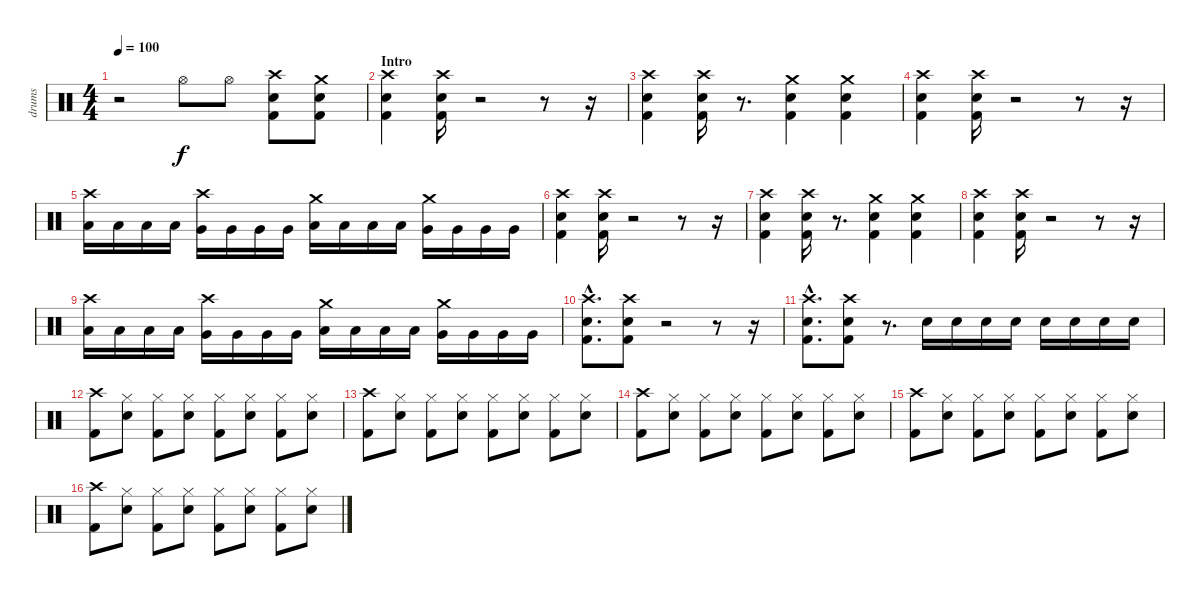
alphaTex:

\track ("drums" "drums") {instrument percussion}
\staff {score}
\articulation defaults
\ts (4 4)
\tempo 100
\clef neutral
\ks c
r.2{dy f} "Hi-Hat (open)".8 "Hi-Hat (open)".8 ("Crash high (hit)" "Snare (hit) 2" "Kick (hit) 2").8 ("Crash medium (hit)" "Snare (hit) 2" "Kick (hit) 2").8 |
\section ("" "Intro")
("Crash high (hit)" "Snare (hit) 2" "Kick (hit) 2").4 ("Crash high (hit)" "Snare (hit) 2" "Kick (hit) 2").16 r.2 r.8 r.16 |
("Crash high (hit)" "Snare (hit) 2" "Kick (hit) 2").4 ("Crash high (hit)" "Snare (hit) 2" "Kick (hit) 2").16 r.8{d} ("Crash medium (hit)" "Snare (hit) 2" "Kick (hit) 2").4 ("Crash medium (hit)" "Snare (hit) 2" "Kick (hit) 2").4 |
("Crash high (hit)" "Snare (hit) 2" "Kick (hit) 2").4 ("Crash high (hit)" "Snare (hit) 2" "Kick (hit) 2").16 r.2 r.8 r.16 |
("Crash high (hit)" "Low Tom (hit)").16 "Low Tom (hit)".16 "Low Tom (hit)".16 "Low Tom (hit)".16 ("Crash high (hit)" "Very Low Tom (hit)").16 "Very Low Tom (hit)".16 "Very Low Tom (hit)".16 "Very Low Tom (hit)".16 ("Crash medium (hit)" "Low Floor Tom (hit)").16 "Low Floor Tom (hit)".16 "Low Floor Tom (hit)".16 "Low Floor Tom (hit)".16 ("Crash medium (hit)" "Very Low Tom (hit)").16 "Very Low Tom (hit)".16 "Very Low Tom (hit)".16 "Very Low Tom (hit)".16 |
("Crash high (hit)" "Snare (hit) 2" "Kick (hit) 2").4 ("Crash high (hit)" "Snare (hit) 2" "Kick (hit) 2").16 r.2 r.8 r.16 |
("Crash high (hit)" "Snare (hit) 2" "Kick (hit) 2").4 ("Crash high (hit)" "Snare (hit) 2" "Kick (hit) 2").16 r.8{d} ("Crash medium (hit)" "Snare (hit) 2" "Kick (hit) 2").4 ("Crash medium (hit)" "Snare (hit) 2" "Kick (hit) 2").4 |
("Crash high (hit)" "Snare (hit) 2" "Kick (hit) 2").4 ("Crash high (hit)" "Snare (hit) 2" "Kick (hit) 2").16 r.2 r.8 r.16 |
("Crash high (hit)" "Low Tom (hit)").16 "Low Tom (hit)".16 "Low Tom (hit)".16 "Low Tom (hit)".16 ("Crash high (hit)" "Very Low Tom (hit)").16 "Very Low Tom (hit)".16 "Very Low Tom (hit)".16 "Very Low Tom (hit)".16 ("Crash medium (hit)" "Low Floor Tom (hit)").16 "Low Floor Tom (hit)".16 "Low Floor Tom (hit)".16 "Low Floor Tom (hit)".16 ("Crash medium (hit)" "Very Low Tom (hit)").16 "Very Low Tom (hit)".16 "Very Low Tom (hit)".16 "Very Low Tom (hit)".16 |
("Crash high (hit)"{hac} "Snare (hit) 2"{hac} "Kick (hit) 2"{hac}).8{d} ("Crash high (hit)" "Snare (hit) 2" "Kick (hit) 2").8 r.2 r.8 r.16 |
("Crash high (hit)"{hac} "Snare (hit) 2"{hac} "Kick (hit) 2"{hac}).8{d} ("Crash high (hit)" "Snare (hit) 2" "Kick (hit) 2").8 r.8{d} "Snare (hit) 2".16 "Snare (hit) 2".16 "Snare (hit) 2".16 "Snare (hit) 2".16 "Snare (hit) 2".16 "Snare (hit) 2".16 "Snare (hit) 2".16 "Snare (hit) 2".16 |
("Crash high (hit)" "Kick (hit) 2").8 ("Hi-Hat (closed)" "Snare (hit) 2").8 ("Hi-Hat (closed)" "Kick (hit) 2").8 ("Hi-Hat (closed)" "Snare (hit) 2").8 ("Hi-Hat (closed)" "Kick (hit) 2").8 ("Hi-Hat (closed)" "Snare (hit) 2").8 ("Hi-Hat (closed)" "Kick (hit) 2").8 ("Hi-Hat (closed)" "Snare (hit) 2").8 |
("Crash high (hit)" "Kick (hit) 2").8 ("Hi-Hat (closed)" "Snare (hit) 2").8 ("Hi-Hat (closed)" "Kick (hit) 2").8 ("Hi-Hat (closed)" "Snare (hit) 2").8 ("Hi-Hat (closed)" "Kick (hit) 2").8 ("Hi-Hat (closed)" "Snare (hit) 2").8 ("Hi-Hat (closed)" "Kick (hit) 2").8 ("Hi-Hat (closed)" "Snare (hit) 2").8 |
("Crash high (hit)" "Kick (hit) 2").8 ("Hi-Hat (closed)" "Snare (hit) 2").8 ("Hi-Hat (closed)" "Kick (hit) 2").8 ("Hi-Hat (closed)" "Snare (hit) 2").8 ("Hi-Hat (closed)" "Kick (hit) 2").8 ("Hi-Hat (closed)" "Snare (hit) 2").8 ("Hi-Hat (closed)" "Kick (hit) 2").8 ("Hi-Hat (closed)" "Snare (hit) 2").8 |
("Crash high (hit)" "Kick (hit) 2").8 ("Hi-Hat (closed)" "Snare (hit) 2").8 ("Hi-Hat (closed)" "Kick (hit) 2").8 ("Hi-Hat (closed)" "Snare (hit) 2").8 ("Hi-Hat (closed)" "Kick (hit) 2").8 ("Hi-Hat (closed)" "Snare (hit) 2").8 ("Hi-Hat (closed)" "Kick (hit) 2").8 ("Hi-Hat (closed)" "Snare (hit) 2").8 |
("Crash high (hit)" "Kick (hit) 2").8 ("Hi-Hat (closed)" "Snare (hit) 2").8 ("Hi-Hat (closed)" "Kick (hit) 2").8 ("Hi-Hat (closed)" "Snare (hit) 2").8 ("Hi-Hat (closed)" "Kick (hit) 2").8 ("Hi-Hat (closed)" "Snare (hit) 2").8 ("Hi-Hat (closed)" "Kick (hit) 2").8 ("Hi-Hat (closed)" "Snare (hit) 2").8
